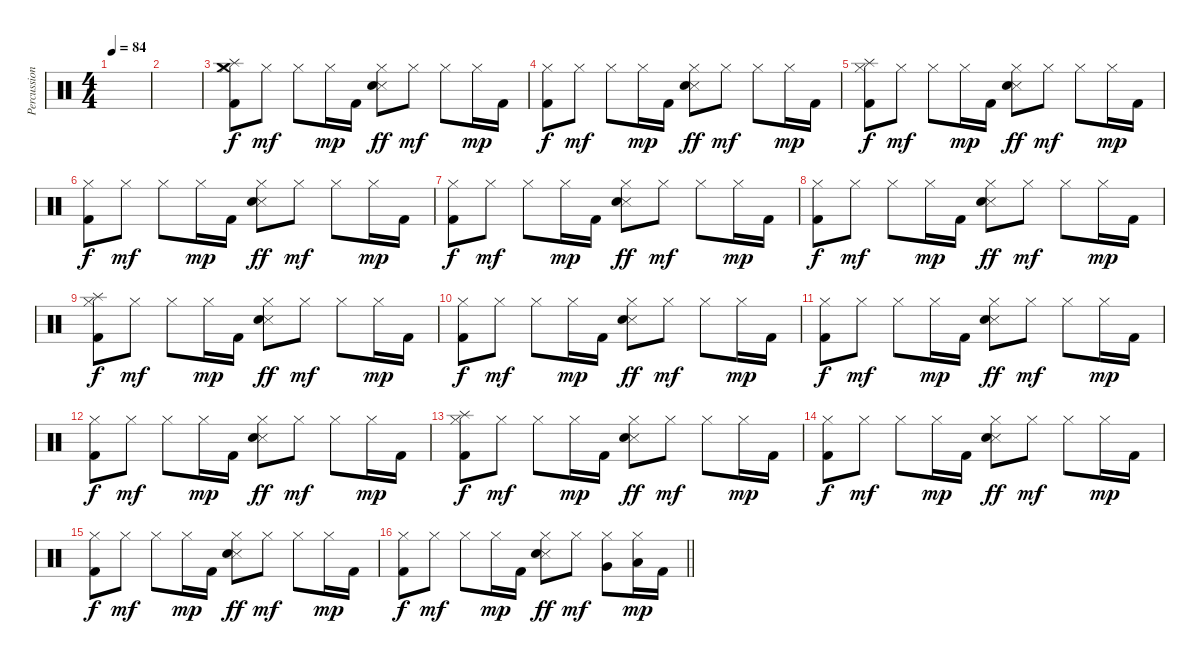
\track ("Percussion" "Percussion") {instrument percussion}
\staff {score}
\articulation defaults
\ts (4 4)
\tempo 84
\clef neutral
\ks c
|
|
("Hi-Hat (closed)" "Splash (hit)" "Crash medium (hit)" "Kick (hit) 2").8 "Hi-Hat (closed)".8{dy mf} "Hi-Hat (closed)".8 "Hi-Hat (closed)".16{dy mp} "Kick (hit) 2".16 ("Hi-Hat (closed)" "Snare (side stick) 3" "Electric Snare (hit)").8{dy ff} "Hi-Hat (closed)".8{dy mf} "Hi-Hat (closed)".8 "Hi-Hat (closed)".16{dy mp} "Kick (hit) 2".16 |
("Hi-Hat (closed)" "Kick (hit) 2").8{dy f} "Hi-Hat (closed)".8{dy mf} "Hi-Hat (closed)".8 "Hi-Hat (closed)".16{dy mp} "Kick (hit) 2".16 ("Hi-Hat (closed)" "Snare (side stick) 3" "Electric Snare (hit)").8{dy ff} "Hi-Hat (closed)".8{dy mf} "Hi-Hat (closed)".8 "Hi-Hat (closed)".16{dy mp} "Kick (hit) 2".16 |
("Hi-Hat (closed)" "Splash (hit)" "Kick (hit) 2").8{dy f} "Hi-Hat (closed)".8{dy mf} "Hi-Hat (closed)".8 "Hi-Hat (closed)".16{dy mp} "Kick (hit) 2".16 ("Hi-Hat (closed)" "Snare (side stick) 3" "Electric Snare (hit)").8{dy ff} "Hi-Hat (closed)".8{dy mf} "Hi-Hat (closed)".8 "Hi-Hat (closed)".16{dy mp} "Kick (hit) 2".16 |
("Hi-Hat (closed)" "Kick (hit) 2").8{dy f} "Hi-Hat (closed)".8{dy mf} "Hi-Hat (closed)".8 "Hi-Hat (closed)".16{dy mp} "Kick (hit) 2".16 ("Hi-Hat (closed)" "Snare (side stick) 3" "Electric Snare (hit)").8{dy ff} "Hi-Hat (closed)".8{dy mf} "Hi-Hat (closed)".8 "Hi-Hat (closed)".16{dy mp} "Kick (hit) 2".16 |
("Hi-Hat (closed)" "Kick (hit) 2").8{dy f} "Hi-Hat (closed)".8{dy mf} "Hi-Hat (closed)".8 "Hi-Hat (closed)".16{dy mp} "Kick (hit) 2".16 ("Hi-Hat (closed)" "Snare (side stick) 3" "Electric Snare (hit)").8{dy ff} "Hi-Hat (closed)".8{dy mf} "Hi-Hat (closed)".8 "Hi-Hat (closed)".16{dy mp} "Kick (hit) 2".16 |
("Hi-Hat (closed)" "Kick (hit) 2").8{dy f} "Hi-Hat (closed)".8{dy mf} "Hi-Hat (closed)".8 "Hi-Hat (closed)".16{dy mp} "Kick (hit) 2".16 ("Hi-Hat (closed)" "Snare (side stick) 3" "Electric Snare (hit)").8{dy ff} "Hi-Hat (closed)".8{dy mf} "Hi-Hat (closed)".8 "Hi-Hat (closed)".16{dy mp} "Kick (hit) 2".16 |
("Hi-Hat (closed)" "Splash (hit)" "Kick (hit) 2").8{dy f} "Hi-Hat (closed)".8{dy mf} "Hi-Hat (closed)".8 "Hi-Hat (closed)".16{dy mp} "Kick (hit) 2".16 ("Hi-Hat (closed)" "Snare (side stick) 3" "Electric Snare (hit)").8{dy ff} "Hi-Hat (closed)".8{dy mf} "Hi-Hat (closed)".8 "Hi-Hat (closed)".16{dy mp} "Kick (hit) 2".16 |
("Hi-Hat (closed)" "Kick (hit) 2").8{dy f} "Hi-Hat (closed)".8{dy mf} "Hi-Hat (closed)".8 "Hi-Hat (closed)".16{dy mp} "Kick (hit) 2".16 ("Hi-Hat (closed)" "Snare (side stick) 3" "Electric Snare (hit)").8{dy ff} "Hi-Hat (closed)".8{dy mf} "Hi-Hat (closed)".8 "Hi-Hat (closed)".16{dy mp} "Kick (hit) 2".16 |
("Hi-Hat (closed)" "Kick (hit) 2").8{dy f} "Hi-Hat (closed)".8{dy mf} "Hi-Hat (closed)".8 "Hi-Hat (closed)".16{dy mp} "Kick (hit) 2".16 ("Hi-Hat (closed)" "Snare (side stick) 3" "Electric Snare (hit)").8{dy ff} "Hi-Hat (closed)".8{dy mf} "Hi-Hat (closed)".8 "Hi-Hat (closed)".16{dy mp} "Kick (hit) 2".16 |
("Hi-Hat (closed)" "Kick (hit) 2").8{dy f} "Hi-Hat (closed)".8{dy mf} "Hi-Hat (closed)".8 "Hi-Hat (closed)".16{dy mp} "Kick (hit) 2".16 ("Hi-Hat (closed)" "Snare (side stick) 3" "Electric Snare (hit)").8{dy ff} "Hi-Hat (closed)".8{dy mf} "Hi-Hat (closed)".8 "Hi-Hat (closed)".16{dy mp} "Kick (hit) 2".16 |
("Hi-Hat (closed)" "Splash (hit)" "Kick (hit) 2").8{dy f} "Hi-Hat (closed)".8{dy mf} "Hi-Hat (closed)".8 "Hi-Hat (closed)".16{dy mp} "Kick (hit) 2".16 ("Hi-Hat (closed)" "Snare (side stick) 3" "Electric Snare (hit)").8{dy ff} "Hi-Hat (closed)".8{dy mf} "Hi-Hat (closed)".8 "Hi-Hat (closed)".16{dy mp} "Kick (hit) 2".16 |
("Hi-Hat (closed)" "Kick (hit) 2").8{dy f} "Hi-Hat (closed)".8{dy mf} "Hi-Hat (closed)".8 "Hi-Hat (closed)".16{dy mp} "Kick (hit) 2".16 ("Hi-Hat (closed)" "Snare (side stick) 3" "Electric Snare (hit)").8{dy ff} "Hi-Hat (closed)".8{dy mf} "Hi-Hat (closed)".8 "Hi-Hat (closed)".16{dy mp} "Kick (hit) 2".16 |
("Hi-Hat (closed)" "Kick (hit) 2").8{dy f} "Hi-Hat (closed)".8{dy mf} "Hi-Hat (closed)".8 "Hi-Hat (closed)".16{dy mp} "Kick (hit) 2".16 ("Hi-Hat (closed)" "Snare (side stick) 3" "Electric Snare (hit)").8{dy ff} "Hi-Hat (closed)".8{dy mf} "Hi-Hat (closed)".8 "Hi-Hat (closed)".16{dy mp} "Kick (hit) 2".16 |
\barLineRight lightlight
("Hi-Hat (closed)" "Kick (hit) 2").8{dy f} "Hi-Hat (closed)".8{dy mf} "Hi-Hat (closed)".8 "Hi-Hat (closed)".16{dy mp} "Kick (hit) 2".16 ("Hi-Hat (closed)" "Snare (side stick) 3" "Electric Snare (hit)").8{dy ff} "Hi-Hat (closed)".8{dy mf} ("Hi-Hat (closed)" "Very Low Tom (hit)").8 ("Hi-Hat (closed)" "Low Tom (hit)").16{dy mp} "Kick (hit) 2".16
